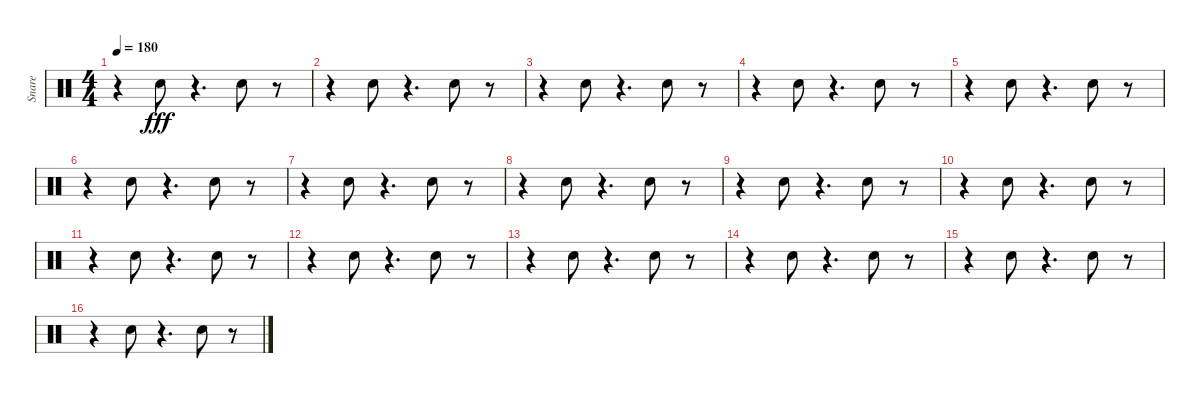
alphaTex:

\track ("Snare" "Snare") {instrument percussion}
\staff {score}
\articulation defaults
\ts (4 4)
\tempo 180
\clef neutral
\ks c
r.4{dy fff} "Electric Snare (hit)".8 r.4{d} "Electric Snare (hit)".8 r.8 |
r.4 "Electric Snare (hit)".8 r.4{d} "Electric Snare (hit)".8 r.8 |
r.4 "Electric Snare (hit)".8 r.4{d} "Electric Snare (hit)".8 r.8 |
r.4 "Electric Snare (hit)".8 r.4{d} "Electric Snare (hit)".8 r.8 |
r.4 "Electric Snare (hit)".8 r.4{d} "Electric Snare (hit)".8 r.8 |
r.4 "Electric Snare (hit)".8 r.4{d} "Electric Snare (hit)".8 r.8 |
r.4 "Electric Snare (hit)".8 r.4{d} "Electric Snare (hit)".8 r.8 |
r.4 "Electric Snare (hit)".8 r.4{d} "Electric Snare (hit)".8 r.8 |
r.4 "Electric Snare (hit)".8 r.4{d} "Electric Snare (hit)".8 r.8 |
r.4 "Electric Snare (hit)".8 r.4{d} "Electric Snare (hit)".8 r.8 |
r.4 "Electric Snare (hit)".8 r.4{d} "Electric Snare (hit)".8 r.8 |
r.4 "Electric Snare (hit)".8 r.4{d} "Electric Snare (hit)".8 r.8 |
r.4 "Electric Snare (hit)".8 r.4{d} "Electric Snare (hit)".8 r.8 |
r.4 "Electric Snare (hit)".8 r.4{d} "Electric Snare (hit)".8 r.8 |
r.4 "Electric Snare (hit)".8 r.4{d} "Electric Snare (hit)".8 r.8 |
r.4 "Electric Snare (hit)".8 r.4{d} "Electric Snare (hit)".8 r.8
